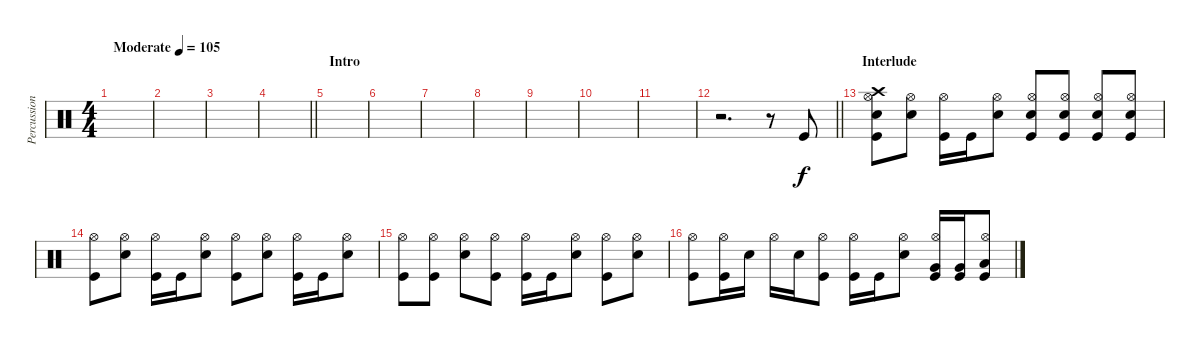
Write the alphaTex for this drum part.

\track ("Percussion" "Percussion") {instrument percussion}
\staff {score}
\articulation defaults
\ts (4 4)
\tempo (105 "Moderate")
\clef neutral
\ks c
|
|
|
\barLineRight lightlight
|
\section ("" "Intro")
|
|
|
|
|
|
|
\barLineRight lightlight
r.2{d} r.8 "Kick (hit)".8 |
\section ("" "Interlude")
("Hi-Hat (open)" "Electric Snare (hit)" "Kick (hit)" "Crash high (hit)").8 ("Hi-Hat (open)" "Electric Snare (hit)").8 ("Hi-Hat (open)" "Kick (hit)").16 "Kick (hit)".16 ("Hi-Hat (open)" "Electric Snare (hit)").8 ("Hi-Hat (open)" "Electric Snare (hit)" "Kick (hit)").8 ("Hi-Hat (open)" "Electric Snare (hit)" "Kick (hit)").8 ("Hi-Hat (open)" "Electric Snare (hit)" "Kick (hit)").8 ("Hi-Hat (open)" "Electric Snare (hit)" "Kick (hit)").8 |
("Hi-Hat (open)" "Kick (hit)").8 ("Hi-Hat (open)" "Electric Snare (hit)").8 ("Hi-Hat (open)" "Kick (hit)").16 "Kick (hit)".16 ("Hi-Hat (open)" "Electric Snare (hit)").8 ("Hi-Hat (open)" "Kick (hit)").8 ("Hi-Hat (open)" "Electric Snare (hit)").8 ("Hi-Hat (open)" "Kick (hit)").16 "Kick (hit)".16 ("Hi-Hat (open)" "Electric Snare (hit)").8 |
("Hi-Hat (open)" "Kick (hit)").8 ("Hi-Hat (open)" "Kick (hit)").8 ("Hi-Hat (open)" "Electric Snare (hit)").8 ("Hi-Hat (open)" "Kick (hit)").8 ("Hi-Hat (open)" "Kick (hit)").16 "Kick (hit)".16 ("Hi-Hat (open)" "Electric Snare (hit)").8 ("Hi-Hat (open)" "Kick (hit)").8 ("Hi-Hat (open)" "Electric Snare (hit)").8 |
("Hi-Hat (open)" "Kick (hit)").8 ("Hi-Hat (open)" "Kick (hit)").16 "Electric Snare (hit)".16 "Hi-Hat (open)".16 "Electric Snare (hit)".16 ("Hi-Hat (open)" "Kick (hit)").8 ("Hi-Hat (open)" "Kick (hit)").16 "Kick (hit)".16 ("Hi-Hat (open)" "Electric Snare (hit)").8 ("Hi-Hat (open)" "Kick (hit)" "Very Low Tom (hit)").16 ("Kick (hit)" "Very Low Tom (hit)").16 ("Hi-Hat (open)" "Kick (hit)" "Low Floor Tom (hit)").8
